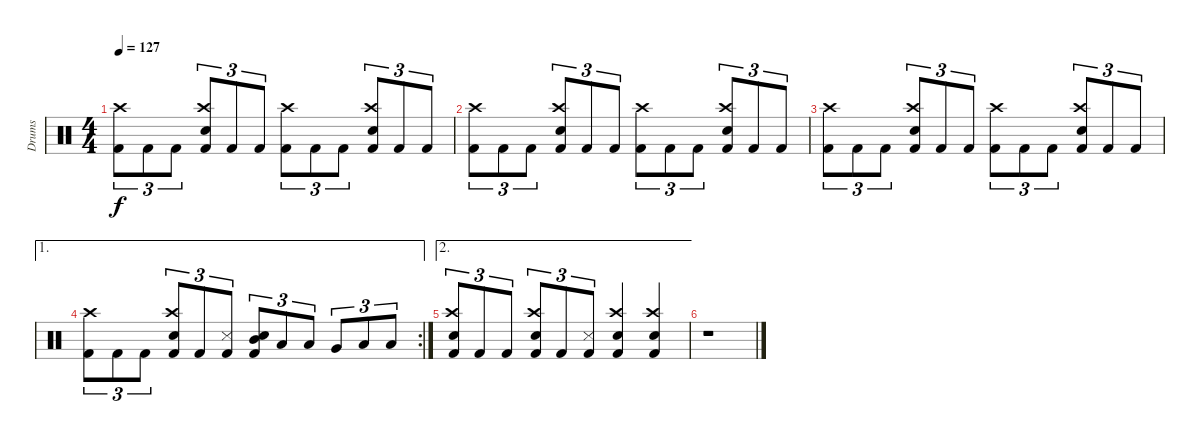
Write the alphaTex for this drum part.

\track ("Drums" "Drums") {instrument percussion}
\staff {score}
\articulation defaults
\ts (4 4)
\tempo 127
\clef neutral
\ks c
("Kick (hit) 2" "Crash high (hit)").8{tu (3 2) dy f} "Kick (hit) 2".8{tu (3 2)} "Kick (hit) 2".8{tu (3 2)} ("Kick (hit) 2" "Electric Snare (hit)" "Crash high (hit)").8{tu (3 2)} "Kick (hit) 2".8{tu (3 2)} "Kick (hit) 2".8{tu (3 2)} ("Kick (hit) 2" "Crash high (hit)").8{tu (3 2)} "Kick (hit) 2".8{tu (3 2)} "Kick (hit) 2".8{tu (3 2)} ("Kick (hit) 2" "Electric Snare (hit)" "Crash high (hit)").8{tu (3 2)} "Kick (hit) 2".8{tu (3 2)} "Kick (hit) 2".8{tu (3 2)} |
("Kick (hit) 2" "Crash high (hit)").8{tu (3 2)} "Kick (hit) 2".8{tu (3 2)} "Kick (hit) 2".8{tu (3 2)} ("Kick (hit) 2" "Electric Snare (hit)" "Crash high (hit)").8{tu (3 2)} "Kick (hit) 2".8{tu (3 2)} "Kick (hit) 2".8{tu (3 2)} ("Kick (hit) 2" "Crash high (hit)").8{tu (3 2)} "Kick (hit) 2".8{tu (3 2)} "Kick (hit) 2".8{tu (3 2)} ("Kick (hit) 2" "Electric Snare (hit)" "Crash high (hit)").8{tu (3 2)} "Kick (hit) 2".8{tu (3 2)} "Kick (hit) 2".8{tu (3 2)} |
("Kick (hit) 2" "Crash high (hit)").8{tu (3 2)} "Kick (hit) 2".8{tu (3 2)} "Kick (hit) 2".8{tu (3 2)} ("Kick (hit) 2" "Electric Snare (hit)" "Crash high (hit)").8{tu (3 2)} "Kick (hit) 2".8{tu (3 2)} "Kick (hit) 2".8{tu (3 2)} ("Kick (hit) 2" "Crash high (hit)").8{tu (3 2)} "Kick (hit) 2".8{tu (3 2)} "Kick (hit) 2".8{tu (3 2)} ("Kick (hit) 2" "Electric Snare (hit)" "Crash high (hit)").8{tu (3 2)} "Kick (hit) 2".8{tu (3 2)} "Kick (hit) 2".8{tu (3 2)} |
\ae 1
\rc 2
("Kick (hit) 2" "Crash high (hit)").8{tu (3 2)} "Kick (hit) 2".8{tu (3 2)} "Kick (hit) 2".8{tu (3 2)} ("Kick (hit) 2" "Electric Snare (hit)" "Crash high (hit)").8{tu (3 2)} "Kick (hit) 2".8{tu (3 2)} ("Kick (hit) 2" "Snare (side stick) 3").8{tu (3 2)} ("Kick (hit) 2" "Electric Snare (hit)" "Mid Tom (hit)").8{tu (3 2)} "Low Tom (hit)".8{tu (3 2)} "Low Tom (hit)".8{tu (3 2)} "Very Low Tom (hit)".8{tu (3 2)} "Low Floor Tom (hit)".8{tu (3 2)} "Low Floor Tom (hit)".8{tu (3 2)} |
\ae 2
("Kick (hit) 2" "Electric Snare (hit)" "Crash high (hit)").8{tu (3 2)} "Kick (hit) 2".8{tu (3 2)} "Kick (hit) 2".8{tu (3 2)} ("Kick (hit) 2" "Electric Snare (hit)" "Crash high (hit)").8{tu (3 2)} "Kick (hit) 2".8{tu (3 2)} ("Kick (hit) 2" "Snare (side stick) 3").8{tu (3 2)} ("Kick (hit) 2" "Electric Snare (hit)" "Crash high (hit)").4 ("Kick (hit) 2" "Electric Snare (hit)" "Crash high (hit)").4 |
r.1
